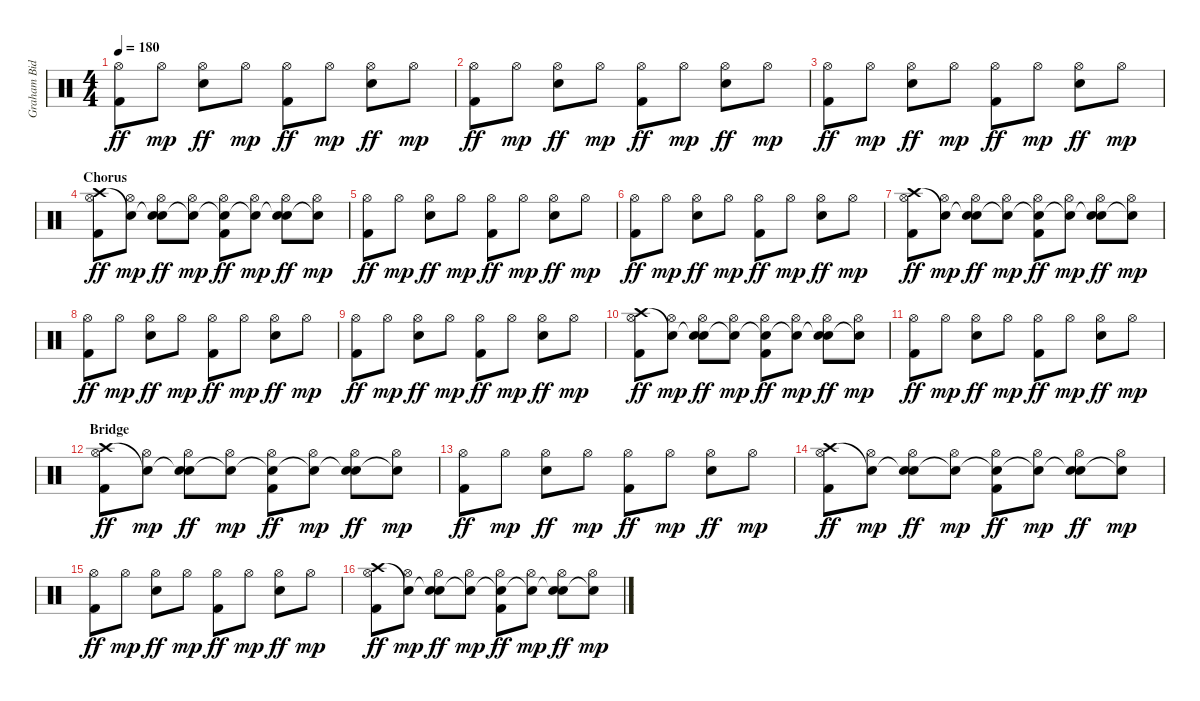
\track ("Graham Bidstrup" "Graham Bid") {instrument percussion}
\staff {score}
\articulation defaults
\ts (4 4)
\tempo 180
\clef neutral
\ks c
("Hi-Hat (open)" "Kick (hit) 2").8{dy ff} "Hi-Hat (open)".8{dy mp} ("Hi-Hat (open)" "Snare (hit) 2").8{dy ff} "Hi-Hat (open)".8{dy mp} ("Hi-Hat (open)" "Kick (hit) 2").8{dy ff} "Hi-Hat (open)".8{dy mp} ("Hi-Hat (open)" "Snare (hit) 2").8{dy ff} "Hi-Hat (open)".8{dy mp} |
("Hi-Hat (open)" "Kick (hit) 2").8{dy ff} "Hi-Hat (open)".8{dy mp} ("Hi-Hat (open)" "Snare (hit) 2").8{dy ff} "Hi-Hat (open)".8{dy mp} ("Hi-Hat (open)" "Kick (hit) 2").8{dy ff} "Hi-Hat (open)".8{dy mp} ("Hi-Hat (open)" "Snare (hit) 2").8{dy ff} "Hi-Hat (open)".8{dy mp} |
("Hi-Hat (open)" "Kick (hit) 2").8{dy ff} "Hi-Hat (open)".8{dy mp} ("Hi-Hat (open)" "Snare (hit) 2").8{dy ff} "Hi-Hat (open)".8{dy mp} ("Hi-Hat (open)" "Kick (hit) 2").8{dy ff} "Hi-Hat (open)".8{dy mp} ("Hi-Hat (open)" "Snare (hit) 2").8{dy ff} "Hi-Hat (open)".8{dy mp} |
\section ("" "Chorus")
("Crash high (hit)" "Hi-Hat (open)" "Kick (hit) 2").8{dy ff} ("Snare (hit)"{t} "Hi-Hat (open)").8{dy mp} ("Snare (hit)"{t} "Hi-Hat (open)" "Snare (hit) 2").8{dy ff} ("Snare (hit)"{t} "Hi-Hat (open)").8{dy mp} ("Snare (hit)"{t} "Hi-Hat (open)" "Kick (hit) 2").8{dy ff} ("Snare (hit)"{t} "Hi-Hat (open)").8{dy mp} ("Snare (hit)"{t} "Hi-Hat (open)" "Snare (hit) 2").8{dy ff} ("Snare (hit)"{t} "Hi-Hat (open)").8{dy mp} |
("Hi-Hat (open)" "Kick (hit) 2").8{dy ff} "Hi-Hat (open)".8{dy mp} ("Hi-Hat (open)" "Snare (hit) 2").8{dy ff} "Hi-Hat (open)".8{dy mp} ("Hi-Hat (open)" "Kick (hit) 2").8{dy ff} "Hi-Hat (open)".8{dy mp} ("Hi-Hat (open)" "Snare (hit) 2").8{dy ff} "Hi-Hat (open)".8{dy mp} |
("Hi-Hat (open)" "Kick (hit) 2").8{dy ff} "Hi-Hat (open)".8{dy mp} ("Hi-Hat (open)" "Snare (hit) 2").8{dy ff} "Hi-Hat (open)".8{dy mp} ("Hi-Hat (open)" "Kick (hit) 2").8{dy ff} "Hi-Hat (open)".8{dy mp} ("Hi-Hat (open)" "Snare (hit) 2").8{dy ff} "Hi-Hat (open)".8{dy mp} |
("Crash high (hit)" "Hi-Hat (open)" "Kick (hit) 2").8{dy ff} ("Snare (hit)"{t} "Hi-Hat (open)").8{dy mp} ("Snare (hit)"{t} "Hi-Hat (open)" "Snare (hit) 2").8{dy ff} ("Snare (hit)"{t} "Hi-Hat (open)").8{dy mp} ("Snare (hit)"{t} "Hi-Hat (open)" "Kick (hit) 2").8{dy ff} ("Snare (hit)"{t} "Hi-Hat (open)").8{dy mp} ("Snare (hit)"{t} "Hi-Hat (open)" "Snare (hit) 2").8{dy ff} ("Snare (hit)"{t} "Hi-Hat (open)").8{dy mp} |
("Hi-Hat (open)" "Kick (hit) 2").8{dy ff} "Hi-Hat (open)".8{dy mp} ("Hi-Hat (open)" "Snare (hit) 2").8{dy ff} "Hi-Hat (open)".8{dy mp} ("Hi-Hat (open)" "Kick (hit) 2").8{dy ff} "Hi-Hat (open)".8{dy mp} ("Hi-Hat (open)" "Snare (hit) 2").8{dy ff} "Hi-Hat (open)".8{dy mp} |
("Hi-Hat (open)" "Kick (hit) 2").8{dy ff} "Hi-Hat (open)".8{dy mp} ("Hi-Hat (open)" "Snare (hit) 2").8{dy ff} "Hi-Hat (open)".8{dy mp} ("Hi-Hat (open)" "Kick (hit) 2").8{dy ff} "Hi-Hat (open)".8{dy mp} ("Hi-Hat (open)" "Snare (hit) 2").8{dy ff} "Hi-Hat (open)".8{dy mp} |
("Crash high (hit)" "Hi-Hat (open)" "Kick (hit) 2").8{dy ff} ("Snare (hit)"{t} "Hi-Hat (open)").8{dy mp} ("Snare (hit)"{t} "Hi-Hat (open)" "Snare (hit) 2").8{dy ff} ("Snare (hit)"{t} "Hi-Hat (open)").8{dy mp} ("Snare (hit)"{t} "Hi-Hat (open)" "Kick (hit) 2").8{dy ff} ("Snare (hit)"{t} "Hi-Hat (open)").8{dy mp} ("Snare (hit)"{t} "Hi-Hat (open)" "Snare (hit) 2").8{dy ff} ("Snare (hit)"{t} "Hi-Hat (open)").8{dy mp} |
("Hi-Hat (open)" "Kick (hit) 2").8{dy ff} "Hi-Hat (open)".8{dy mp} ("Hi-Hat (open)" "Snare (hit) 2").8{dy ff} "Hi-Hat (open)".8{dy mp} ("Hi-Hat (open)" "Kick (hit) 2").8{dy ff} "Hi-Hat (open)".8{dy mp} ("Hi-Hat (open)" "Snare (hit) 2").8{dy ff} "Hi-Hat (open)".8{dy mp} |
\section ("" "Bridge")
("Crash high (hit)" "Hi-Hat (open)" "Kick (hit) 2").8{dy ff} ("Snare (hit)"{t} "Hi-Hat (open)").8{dy mp} ("Snare (hit)"{t} "Hi-Hat (open)" "Snare (hit) 2").8{dy ff} ("Snare (hit)"{t} "Hi-Hat (open)").8{dy mp} ("Snare (hit)"{t} "Hi-Hat (open)" "Kick (hit) 2").8{dy ff} ("Snare (hit)"{t} "Hi-Hat (open)").8{dy mp} ("Snare (hit)"{t} "Hi-Hat (open)" "Snare (hit) 2").8{dy ff} ("Snare (hit)"{t} "Hi-Hat (open)").8{dy mp} |
("Hi-Hat (open)" "Kick (hit) 2").8{dy ff} "Hi-Hat (open)".8{dy mp} ("Hi-Hat (open)" "Snare (hit) 2").8{dy ff} "Hi-Hat (open)".8{dy mp} ("Hi-Hat (open)" "Kick (hit) 2").8{dy ff} "Hi-Hat (open)".8{dy mp} ("Hi-Hat (open)" "Snare (hit) 2").8{dy ff} "Hi-Hat (open)".8{dy mp} |
("Crash high (hit)" "Hi-Hat (open)" "Kick (hit) 2").8{dy ff} ("Snare (hit)"{t} "Hi-Hat (open)").8{dy mp} ("Snare (hit)"{t} "Hi-Hat (open)" "Snare (hit) 2").8{dy ff} ("Snare (hit)"{t} "Hi-Hat (open)").8{dy mp} ("Snare (hit)"{t} "Hi-Hat (open)" "Kick (hit) 2").8{dy ff} ("Snare (hit)"{t} "Hi-Hat (open)").8{dy mp} ("Snare (hit)"{t} "Hi-Hat (open)" "Snare (hit) 2").8{dy ff} ("Snare (hit)"{t} "Hi-Hat (open)").8{dy mp} |
("Hi-Hat (open)" "Kick (hit) 2").8{dy ff} "Hi-Hat (open)".8{dy mp} ("Hi-Hat (open)" "Snare (hit) 2").8{dy ff} "Hi-Hat (open)".8{dy mp} ("Hi-Hat (open)" "Kick (hit) 2").8{dy ff} "Hi-Hat (open)".8{dy mp} ("Hi-Hat (open)" "Snare (hit) 2").8{dy ff} "Hi-Hat (open)".8{dy mp} |
("Crash high (hit)" "Hi-Hat (open)" "Kick (hit) 2").8{dy ff} ("Snare (hit)"{t} "Hi-Hat (open)").8{dy mp} ("Snare (hit)"{t} "Hi-Hat (open)" "Snare (hit) 2").8{dy ff} ("Snare (hit)"{t} "Hi-Hat (open)").8{dy mp} ("Snare (hit)"{t} "Hi-Hat (open)" "Kick (hit) 2").8{dy ff} ("Snare (hit)"{t} "Hi-Hat (open)").8{dy mp} ("Snare (hit)"{t} "Hi-Hat (open)" "Snare (hit) 2").8{dy ff} ("Snare (hit)"{t} "Hi-Hat (open)").8{dy mp}
